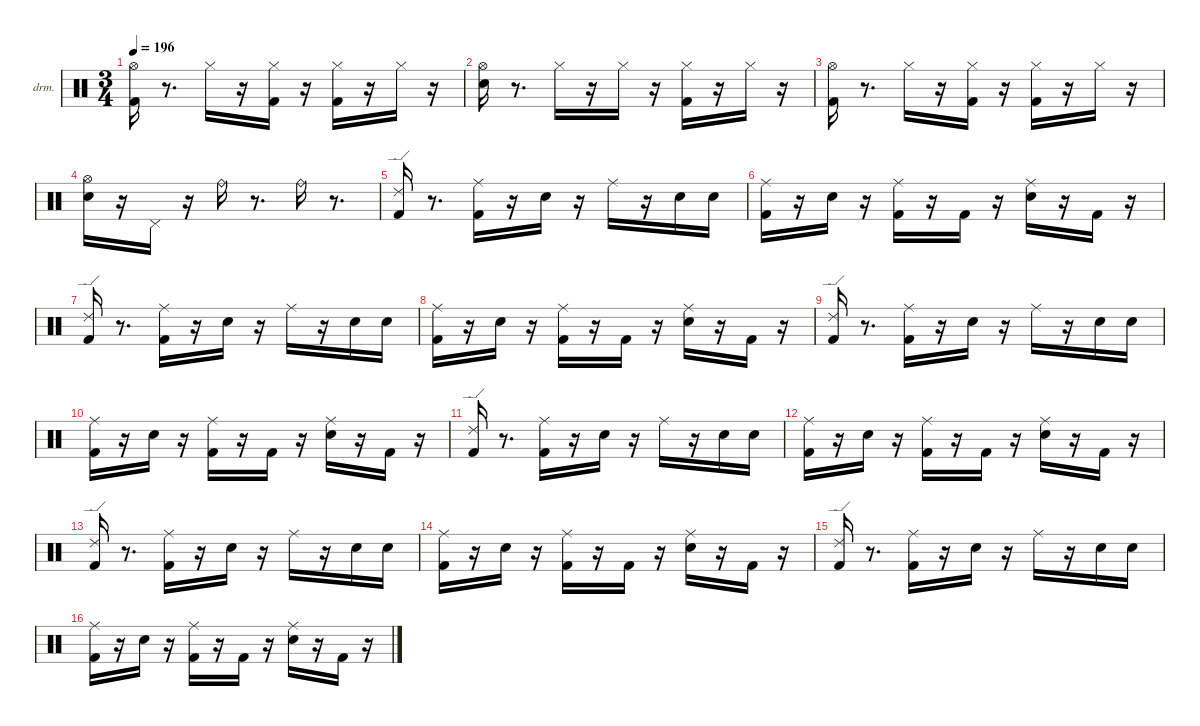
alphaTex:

\hideDynamics
\bracketExtendMode nobrackets
\firstSystemTrackNameOrientation horizontal
\otherSystemsTrackNameOrientation horizontal
\track ("EZdrummer 3" "drm.") {instrument percussion}
\staff {score}
\articulation defaults
\ts (3 4)
\tempo 196
\clef neutral
\ks aminor
("Kick (hit) 2" "Hi-Hat (open)"{acc #}).16{dy fff beam Down} r.8{d beam Down} "Hi-Hat (closed)"{acc #}.16{dy ff beam Down} r.16{beam Down} ("Kick (hit) 2" "Hi-Hat (closed)"{acc #}).16{dy mf beam Down} r.16{beam Down} ("Kick (hit) 2" "Hi-Hat (closed)"{acc #}).16{dy ff beam Down} r.16{beam Down} "Hi-Hat (closed)"{acc #}.16{dy ppp beam Down} r.16{beam Down} |
("Snare (hit) 2" "Hi-Hat (open)"{acc #}).16{dy ff beam Down} r.8{d beam Down} "Hi-Hat (closed)"{acc #}.16{beam Down} r.16{beam Down} "Hi-Hat (closed)"{acc #}.16{dy ppp beam Down} r.16{beam Down} ("Kick (hit) 2" "Hi-Hat (closed)"{acc #}).16{dy ff beam Down} r.16{beam Down} "Hi-Hat (closed)"{acc #}.16{dy ppp beam Down} r.16{beam Down} |
("Kick (hit) 2" "Hi-Hat (open)"{acc #}).16{dy fff beam Down} r.8{d beam Down} "Hi-Hat (closed)"{acc #}.16{dy ff beam Down} r.16{beam Down} ("Kick (hit) 2" "Hi-Hat (closed)"{acc #}).16{dy mf beam Down} r.16{beam Down} ("Kick (hit) 2" "Hi-Hat (closed)"{acc #}).16{dy ff beam Down} r.16{beam Down} "Hi-Hat (closed)"{acc #}.16{dy ppp beam Down} r.16{beam Down} |
("Snare (hit) 2" "Hi-Hat (open)"{acc #}).16{dy ff beam Down} r.16{beam Down} "Pedal Hi-Hat (hit)"{acc #}.16{beam Up} r.16{beam Up} "Ride (bell)".16{dy fff beam Down} r.8{d beam Down} "Ride (bell)".16{beam Down} r.8{d beam Down} |
("Kick (hit) 2" "Ride (edge) 2").16{beam Up} r.8{d beam Up} ("Kick (hit) 2" "Ride (middle)"{acc #}).16{dy f beam Down} r.16{beam Down} "Snare (hit) 2".16{dy ff beam Down} r.16{beam Down} "Ride (middle)"{acc #}.16{dy f beam Down} r.16{beam Down} "Snare (hit) 2".16{beam Down} "Snare (hit) 2".16{dy mp beam Down} |
("Kick (hit) 2" "Ride (middle)"{acc #}).16{dy fff beam Down} r.16{beam Down} "Snare (hit) 2".16{dy ff beam Down} r.16{beam Down} ("Kick (hit) 2" "Ride (middle)"{acc #}).16{dy mf beam Down} r.16{beam Down} "Kick (hit) 2".16{dy fff beam Up} r.16{beam Up} ("Snare (hit) 2" "Ride (middle)"{acc #}).16{dy ff beam Down} r.16{beam Down} "Kick (hit) 2".16{dy mp beam Up} r.16{beam Up} |
("Kick (hit) 2" "Ride (edge) 2").16{dy fff beam Up} r.8{d beam Up} ("Kick (hit) 2" "Ride (middle)"{acc #}).16{dy f beam Down} r.16{beam Down} "Snare (hit) 2".16{dy ff beam Down} r.16{beam Down} "Ride (middle)"{acc #}.16{dy f beam Down} r.16{beam Down} "Snare (hit) 2".16{beam Down} "Snare (hit) 2".16{dy mp beam Down} |
("Kick (hit) 2" "Ride (middle)"{acc #}).16{dy fff beam Down} r.16{beam Down} "Snare (hit) 2".16{dy ff beam Down} r.16{beam Down} ("Kick (hit) 2" "Ride (middle)"{acc #}).16{dy mf beam Down} r.16{beam Down} "Kick (hit) 2".16{dy fff beam Up} r.16{beam Up} ("Snare (hit) 2" "Ride (middle)"{acc #}).16{dy ff beam Down} r.16{beam Down} "Kick (hit) 2".16{dy mp beam Up} r.16{beam Up} |
("Kick (hit) 2" "Ride (edge) 2").16{dy fff beam Up} r.8{d beam Up} ("Kick (hit) 2" "Ride (middle)"{acc #}).16{dy f beam Down} r.16{beam Down} "Snare (hit) 2".16{dy ff beam Down} r.16{beam Down} "Ride (middle)"{acc #}.16{dy f beam Down} r.16{beam Down} "Snare (hit) 2".16{beam Down} "Snare (hit) 2".16{dy mp beam Down} |
("Kick (hit) 2" "Ride (middle)"{acc #}).16{dy fff beam Down} r.16{beam Down} "Snare (hit) 2".16{dy ff beam Down} r.16{beam Down} ("Kick (hit) 2" "Ride (middle)"{acc #}).16{dy mf beam Down} r.16{beam Down} "Kick (hit) 2".16{dy fff beam Up} r.16{beam Up} ("Snare (hit) 2" "Ride (middle)"{acc #}).16{dy ff beam Down} r.16{beam Down} "Kick (hit) 2".16{dy mp beam Up} r.16{beam Up} |
("Kick (hit) 2" "Ride (edge) 2").16{dy fff beam Up} r.8{d beam Up} ("Kick (hit) 2" "Ride (middle)"{acc #}).16{dy f beam Down} r.16{beam Down} "Snare (hit) 2".16{dy ff beam Down} r.16{beam Down} "Ride (middle)"{acc #}.16{dy f beam Down} r.16{beam Down} "Snare (hit) 2".16{beam Down} "Snare (hit) 2".16{dy mp beam Down} |
("Kick (hit) 2" "Ride (middle)"{acc #}).16{dy fff beam Down} r.16{beam Down} "Snare (hit) 2".16{dy ff beam Down} r.16{beam Down} ("Kick (hit) 2" "Ride (middle)"{acc #}).16{dy mf beam Down} r.16{beam Down} "Kick (hit) 2".16{dy fff beam Up} r.16{beam Up} ("Snare (hit) 2" "Ride (middle)"{acc #}).16{dy ff beam Down} r.16{beam Down} "Kick (hit) 2".16{dy mp beam Up} r.16{beam Up} |
("Kick (hit) 2" "Ride (edge) 2").16{dy fff beam Up} r.8{d beam Up} ("Kick (hit) 2" "Ride (middle)"{acc #}).16{dy f beam Down} r.16{beam Down} "Snare (hit) 2".16{dy ff beam Down} r.16{beam Down} "Ride (middle)"{acc #}.16{dy f beam Down} r.16{beam Down} "Snare (hit) 2".16{beam Down} "Snare (hit) 2".16{dy mp beam Down} |
("Kick (hit) 2" "Ride (middle)"{acc #}).16{dy fff beam Down} r.16{beam Down} "Snare (hit) 2".16{dy ff beam Down} r.16{beam Down} ("Kick (hit) 2" "Ride (middle)"{acc #}).16{dy mf beam Down} r.16{beam Down} "Kick (hit) 2".16{dy fff beam Up} r.16{beam Up} ("Snare (hit) 2" "Ride (middle)"{acc #}).16{dy ff beam Down} r.16{beam Down} "Kick (hit) 2".16{dy mp beam Up} r.16{beam Up} |
("Kick (hit) 2" "Ride (edge) 2").16{dy fff beam Up} r.8{d beam Up} ("Kick (hit) 2" "Ride (middle)"{acc #}).16{dy f beam Down} r.16{beam Down} "Snare (hit) 2".16{dy ff beam Down} r.16{beam Down} "Ride (middle)"{acc #}.16{dy f beam Down} r.16{beam Down} "Snare (hit) 2".16{beam Down} "Snare (hit) 2".16{dy mp beam Down} |
("Kick (hit) 2" "Ride (middle)"{acc #}).16{dy fff beam Down} r.16{beam Down} "Snare (hit) 2".16{dy ff beam Down} r.16{beam Down} ("Kick (hit) 2" "Ride (middle)"{acc #}).16{dy mf beam Down} r.16{beam Down} "Kick (hit) 2".16{dy fff beam Up} r.16{beam Up} ("Snare (hit) 2" "Ride (middle)"{acc #}).16{dy ff beam Down} r.16{beam Down} "Kick (hit) 2".16{dy mp beam Up} r.16{beam Up}
